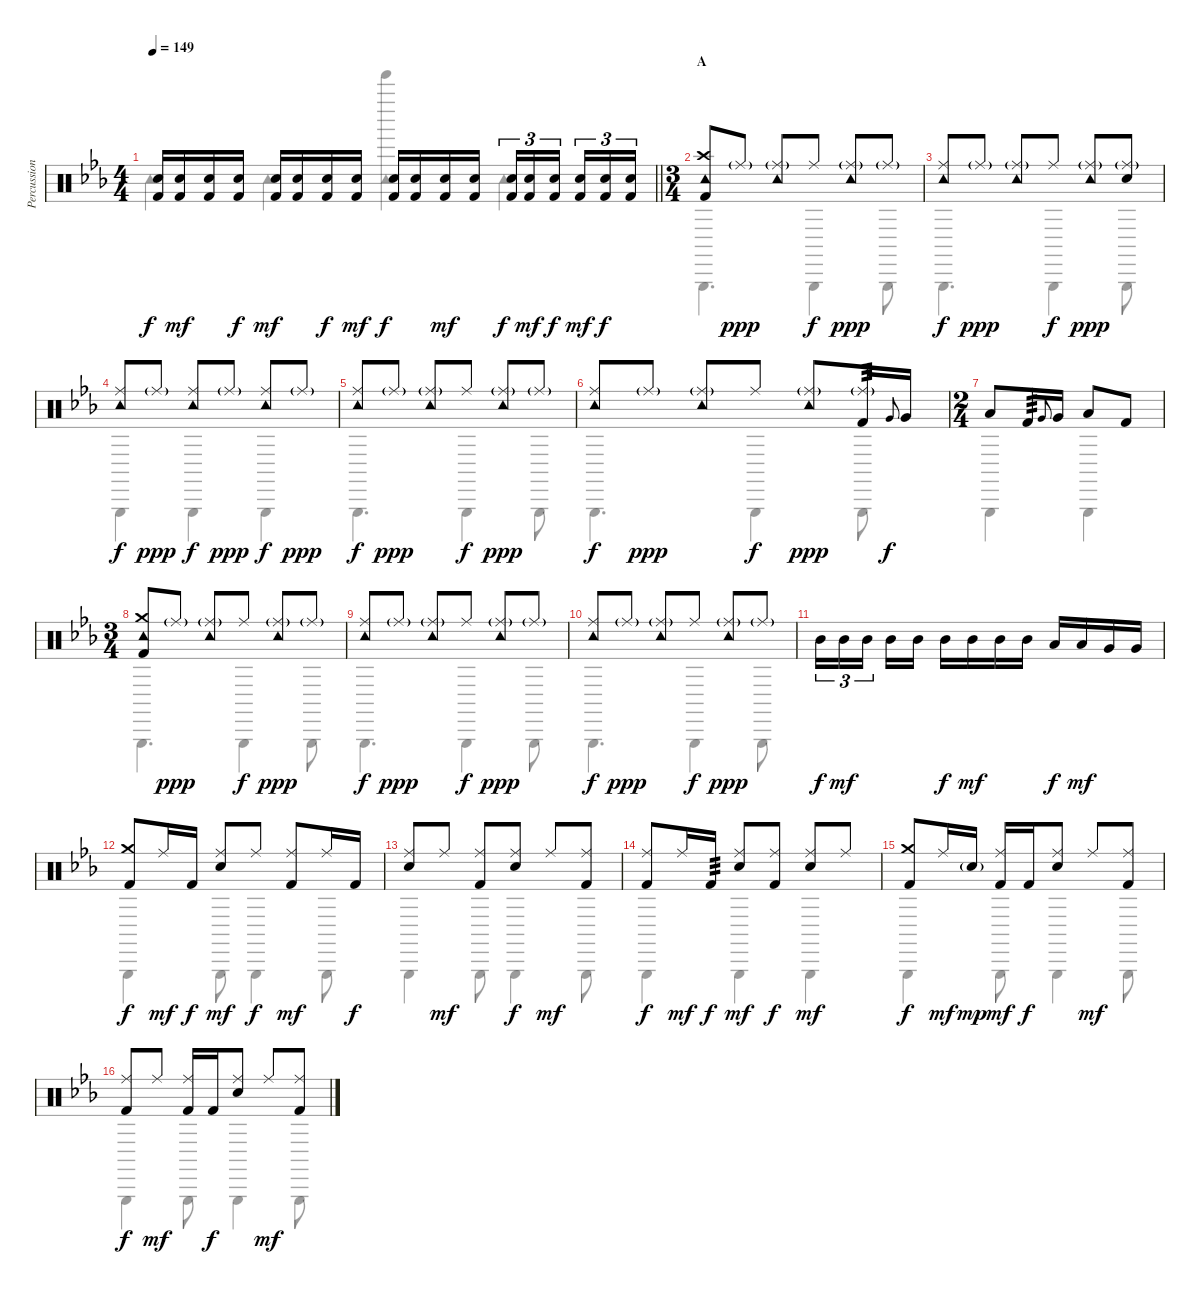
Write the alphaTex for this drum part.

\track ("Percussion" "Percussion") {instrument percussion}
\staff {score}
\articulation defaults
\voice
\ts (4 4)
\tempo 149
\clef neutral
\barLineRight lightlight
\ks cminor
("Snare (hit) 2" "Kick (hit) 2").16{dy f} ("Snare (hit) 2" "Kick (hit) 2").16{dy mf} ("Snare (hit) 2" "Kick (hit) 2").16 ("Snare (hit) 2" "Kick (hit) 2").16{dy f} ("Snare (hit) 2" "Kick (hit) 2").16{dy mf} ("Snare (hit) 2" "Kick (hit) 2").16 ("Snare (hit) 2" "Kick (hit) 2").16{dy f} ("Snare (hit) 2" "Kick (hit) 2").16{dy mf} ("Snare (hit) 2" "Kick (hit) 2").16{dy f} ("Snare (hit) 2" "Kick (hit) 2").16 ("Snare (hit) 2" "Kick (hit) 2").16{dy mf} ("Snare (hit) 2" "Kick (hit) 2").16 ("Snare (hit) 2" "Kick (hit) 2").16{tu (3 2) dy f} ("Snare (hit) 2" "Kick (hit) 2").16{tu (3 2) dy mf} ("Snare (hit) 2" "Kick (hit) 2").16{tu (3 2) dy f beam splitsecondary} ("Snare (hit) 2" "Kick (hit) 2").16{tu (3 2) dy mf} ("Snare (hit) 2" "Kick (hit) 2").16{tu (3 2) dy f} ("Snare (hit) 2" "Kick (hit) 2").16{tu (3 2)} |
\ts (3 4)
\section ("" "A")
("Crash high (hit)" "Tambourine (hit)" "Kick (hit) 2").8 "Ride (middle)"{g}.8{dy ppp} ("Ride (middle)"{g} "Tambourine (hit)").8 "Ride (middle)".8{dy f} ("Ride (middle)"{g} "Tambourine (hit)").8{dy ppp} "Ride (middle)"{g}.8 |
("Ride (middle)" "Tambourine (hit)").8{dy f} "Ride (middle)"{g}.8{dy ppp} ("Ride (middle)"{g} "Tambourine (hit)").8 "Ride (middle)".8{dy f} ("Ride (middle)"{g} "Tambourine (hit)").8{dy ppp} ("Ride (middle)"{g} "Snare (hit)").8 |
("Ride (middle)" "Tambourine (hit)").8{dy f} "Ride (middle)"{g}.8{dy ppp} ("Ride (middle)" "Tambourine (hit)").8{dy f} "Ride (middle)"{g}.8{dy ppp} ("Ride (middle)" "Tambourine (hit)").8{dy f} "Ride (middle)"{g}.8{dy ppp} |
("Ride (middle)" "Tambourine (hit)").8{dy f} "Ride (middle)"{g}.8{dy ppp} ("Ride (middle)"{g} "Tambourine (hit)").8 "Ride (middle)".8{dy f} ("Ride (middle)"{g} "Tambourine (hit)").8{dy ppp} "Ride (middle)"{g}.8 |
("Ride (middle)" "Tambourine (hit)").8{dy f} "Ride (middle)"{g}.8{dy ppp} ("Ride (middle)"{g} "Tambourine (hit)").8 "Ride (middle)".8{dy f} ("Ride (middle)"{g} "Tambourine (hit)").8{dy ppp} ("Ride (middle)"{g} "Kick (hit) 2").16{tp 3} "Very Low Tom (hit)".8{gr onbeat dy f} "Very Low Tom (hit)".16 |
\ts (2 4)
"Low Floor Tom (hit)".8 "Kick (hit) 2".16{tp 3} "Very Low Tom (hit)".8{gr onbeat} "Very Low Tom (hit)".16 "Low Floor Tom (hit)".8 "Kick (hit) 2".8 |
\ts (3 4)
("Crash medium (hit)" "Tambourine (hit)" "Kick (hit) 2").8 "Ride (middle)"{g}.8{dy ppp} ("Ride (middle)"{g} "Tambourine (hit)").8 "Ride (middle)".8{dy f} ("Ride (middle)"{g} "Tambourine (hit)").8{dy ppp} "Ride (middle)"{g}.8 |
("Ride (middle)" "Tambourine (hit)").8{dy f} "Ride (middle)"{g}.8{dy ppp} ("Ride (middle)"{g} "Tambourine (hit)").8 "Ride (middle)".8{dy f} ("Ride (middle)"{g} "Tambourine (hit)").8{dy ppp} "Ride (middle)"{g}.8 |
("Ride (middle)" "Tambourine (hit)").8{dy f} "Ride (middle)"{g}.8{dy ppp} ("Ride (middle)"{g} "Tambourine (hit)").8 "Ride (middle)".8{dy f} ("Ride (middle)"{g} "Tambourine (hit)").8{dy ppp} "Ride (middle)"{g}.8 |
"Mid Tom (hit)".16{tu (3 2) dy f} "Mid Tom (hit)".16{tu (3 2) dy mf} "Mid Tom (hit)".16{tu (3 2) beam splitsecondary} "Mid Tom (hit)".16 "Mid Tom (hit)".16 "Mid Tom (hit)".16{dy f} "Mid Tom (hit)".16{dy mf} "Mid Tom (hit)".16 "Mid Tom (hit)".16 "Low Tom (hit)".16{dy f} "Low Tom (hit)".16{dy mf} "Very Low Tom (hit)".16 "Very Low Tom (hit)".16 |
("Crash medium (hit)" "Kick (hit) 2").8{dy f} "Ride (middle)".16{dy mf} "Kick (hit) 2".16{dy f} ("Ride (middle)" "Snare (hit) 2").8{dy mf} "Ride (middle)".8{dy f} ("Ride (middle)" "Kick (hit) 2").8{dy mf} "Ride (middle)".16 "Kick (hit) 2".16{dy f} |
("Ride (middle)" "Snare (hit) 2").8 "Ride (middle)".8{dy mf} ("Ride (middle)" "Kick (hit) 2").8 ("Ride (middle)" "Snare (hit) 2").8{dy f} "Ride (middle)".8{dy mf} ("Ride (middle)" "Kick (hit) 2").8 |
("Ride (middle)" "Kick (hit) 2").8{dy f} "Ride (middle)".16{dy mf} "Kick (hit) 2".16{tp 3 dy f} ("Ride (middle)" "Snare (hit) 2").8{dy mf} ("Ride (middle)" "Kick (hit) 2").8{dy f} ("Ride (middle)" "Snare (hit) 2").8{dy mf} "Ride (middle)".8 |
("Crash medium (hit)" "Kick (hit) 2").8{dy f} "Ride (middle)".16{dy mf} "Snare (hit) 2"{g}.16{dy mp} ("Ride (middle)" "Kick (hit) 2").16{dy mf} "Kick (hit) 2".16{dy f} ("Ride (middle)" "Snare (hit) 2").8 "Ride (middle)".8{dy mf} ("Ride (middle)" "Kick (hit) 2").8 |
("Ride (middle)" "Kick (hit) 2").8{dy f} "Ride (middle)".8{dy mf} ("Ride (middle)" "Kick (hit) 2").16 "Kick (hit) 2".16{dy f} ("Ride (middle)" "Snare (hit) 2").8 "Ride (middle)".8{dy mf} ("Ride (middle)" "Kick (hit) 2").8
\voice
\clef neutral
\ottava regular
\simile none
\barLineRight lightlight
\ks cminor "Tambourine (hit)".4{dy f} "Tambourine (hit)".4
("Tinkle Bell (hit)" "Tambourine (hit)").4 "Tambourine (hit)".4 |
"Triangle (hit)".4{d} "Triangle (hit)".4 "Triangle (hit)".8 |
"Triangle (hit)".4{d} "Triangle (hit)".4 "Triangle (hit)".8 |
"Triangle (hit)".4 "Triangle (hit)".4 "Triangle (hit)".4 |
"Triangle (hit)".4{d} "Triangle (hit)".4 "Triangle (hit)".8 |
"Triangle (hit)".4{d} "Triangle (hit)".4 "Triangle (hit)".8 |
"Triangle (hit)".4 "Triangle (hit)".4 |
"Triangle (hit)".4{d} "Triangle (hit)".4 "Triangle (hit)".8 |
"Triangle (hit)".4{d} "Triangle (hit)".4 "Triangle (hit)".8 |
"Triangle (hit)".4{d} "Triangle (hit)".4 "Triangle (hit)".8 |
|
"Triangle (hit)".4 "Triangle (hit)".8 "Triangle (hit)".4 "Triangle (hit)".8 |
"Triangle (hit)".4 "Triangle (hit)".8 "Triangle (hit)".4 "Triangle (hit)".8 |
"Triangle (hit)".4 "Triangle (hit)".4 "Triangle (hit)".4 |
"Triangle (hit)".4 "Triangle (hit)".8 "Triangle (hit)".4 "Triangle (hit)".8 |
"Triangle (hit)".4 "Triangle (hit)".8 "Triangle (hit)".4 "Triangle (hit)".8
